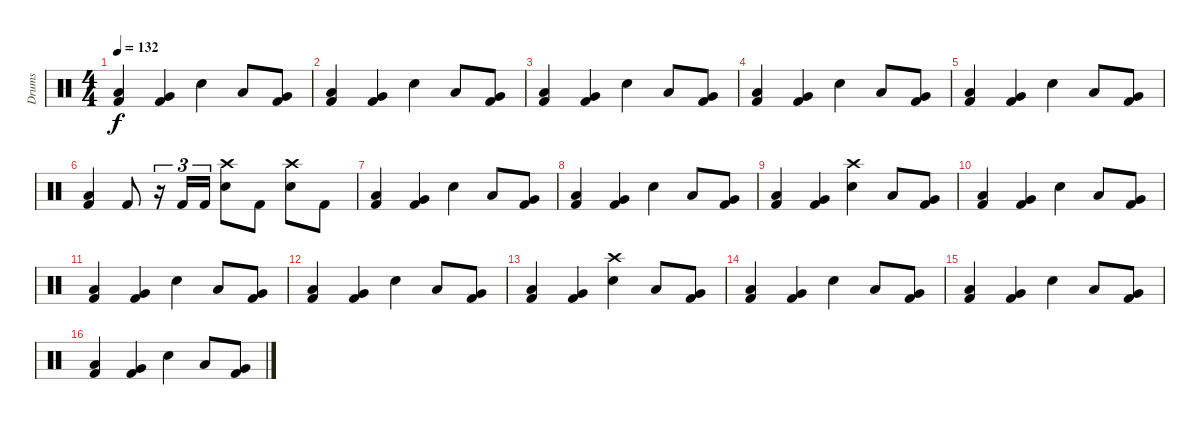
\track ("Drums" "Drums") {instrument percussion}
\staff {score}
\articulation defaults
\ts (4 4)
\tempo 132
\clef neutral
\ks c
("Low Floor Tom (hit)" "Kick (hit) 2").4{dy f} ("Very Low Tom (hit)" "Kick (hit) 2").4 "Snare (hit) 2".4 "Low Tom (hit)".8 ("Very Low Tom (hit)" "Kick (hit) 2").8 |
("Low Floor Tom (hit)" "Kick (hit) 2").4 ("Very Low Tom (hit)" "Kick (hit) 2").4 "Snare (hit) 2".4 "Low Tom (hit)".8 ("Very Low Tom (hit)" "Kick (hit) 2").8 |
("Low Floor Tom (hit)" "Kick (hit) 2").4 ("Very Low Tom (hit)" "Kick (hit) 2").4 "Snare (hit) 2".4 "Low Tom (hit)".8 ("Very Low Tom (hit)" "Kick (hit) 2").8 |
("Low Floor Tom (hit)" "Kick (hit) 2").4 ("Very Low Tom (hit)" "Kick (hit) 2").4 "Snare (hit) 2".4 "Low Tom (hit)".8 ("Very Low Tom (hit)" "Kick (hit) 2").8 |
("Low Floor Tom (hit)" "Kick (hit) 2").4 ("Very Low Tom (hit)" "Kick (hit) 2").4 "Snare (hit) 2".4 "Low Tom (hit)".8 ("Very Low Tom (hit)" "Kick (hit) 2").8 |
("Low Floor Tom (hit)" "Kick (hit) 2").4 "Kick (hit) 2".8 r.16{tu (3 2)} "Kick (hit) 2".16{tu (3 2)} "Kick (hit) 2".16{tu (3 2)} ("Crash high (hit)" "Snare (hit) 2").8 "Kick (hit) 2".8 ("Crash high (hit)" "Snare (hit) 2").8 "Kick (hit) 2".8 |
("Low Floor Tom (hit)" "Kick (hit) 2").4 ("Very Low Tom (hit)" "Kick (hit) 2").4 "Snare (hit) 2".4 "Low Tom (hit)".8 ("Very Low Tom (hit)" "Kick (hit) 2").8 |
("Low Floor Tom (hit)" "Kick (hit) 2").4 ("Very Low Tom (hit)" "Kick (hit) 2").4 "Snare (hit) 2".4 "Low Tom (hit)".8 ("Very Low Tom (hit)" "Kick (hit) 2").8 |
("Low Floor Tom (hit)" "Kick (hit) 2").4 ("Very Low Tom (hit)" "Kick (hit) 2").4 ("Crash high (hit)" "Snare (hit) 2").4 "Low Tom (hit)".8 ("Very Low Tom (hit)" "Kick (hit) 2").8 |
("Low Floor Tom (hit)" "Kick (hit) 2").4 ("Very Low Tom (hit)" "Kick (hit) 2").4 "Snare (hit) 2".4 "Low Tom (hit)".8 ("Very Low Tom (hit)" "Kick (hit) 2").8 |
("Low Floor Tom (hit)" "Kick (hit) 2").4 ("Very Low Tom (hit)" "Kick (hit) 2").4 "Snare (hit) 2".4 "Low Tom (hit)".8 ("Very Low Tom (hit)" "Kick (hit) 2").8 |
("Low Floor Tom (hit)" "Kick (hit) 2").4 ("Very Low Tom (hit)" "Kick (hit) 2").4 "Snare (hit) 2".4 "Low Tom (hit)".8 ("Very Low Tom (hit)" "Kick (hit) 2").8 |
("Low Floor Tom (hit)" "Kick (hit) 2").4 ("Very Low Tom (hit)" "Kick (hit) 2").4 ("Crash high (hit)" "Snare (hit) 2").4 "Low Tom (hit)".8 ("Very Low Tom (hit)" "Kick (hit) 2").8 |
("Low Floor Tom (hit)" "Kick (hit) 2").4 ("Very Low Tom (hit)" "Kick (hit) 2").4 "Snare (hit) 2".4 "Low Tom (hit)".8 ("Very Low Tom (hit)" "Kick (hit) 2").8 |
("Low Floor Tom (hit)" "Kick (hit) 2").4 ("Very Low Tom (hit)" "Kick (hit) 2").4 "Snare (hit) 2".4 "Low Tom (hit)".8 ("Very Low Tom (hit)" "Kick (hit) 2").8 |
("Low Floor Tom (hit)" "Kick (hit) 2").4 ("Very Low Tom (hit)" "Kick (hit) 2").4 "Snare (hit) 2".4 "Low Tom (hit)".8 ("Very Low Tom (hit)" "Kick (hit) 2").8
